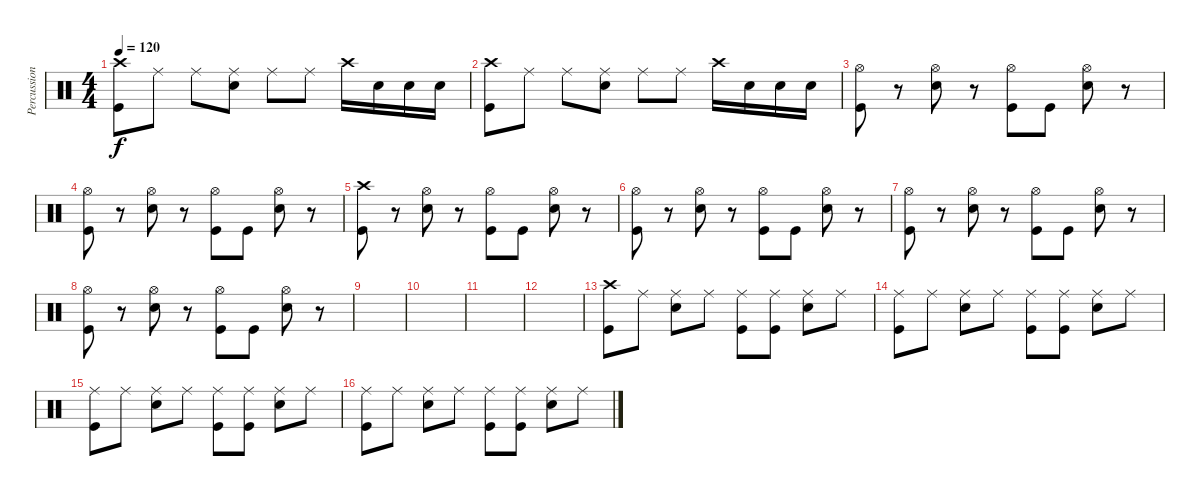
\track ("Percussion" "Percussion") {instrument percussion}
\staff {score}
\articulation defaults
\ts (4 4)
\tempo 120
\clef neutral
\ks c
("Crash high (hit)" "Kick (hit)").8{dy f} "Ride (middle)".8 "Ride (middle)".8 ("Ride (middle)" "Snare (hit) 2").8 "Ride (middle)".8 "Ride (middle)".8 "Crash high (hit)".16 "Snare (hit) 2".16 "Snare (hit) 2".16 "Snare (hit) 2".16 |
("Crash high (hit)" "Kick (hit)").8 "Ride (middle)".8 "Ride (middle)".8 ("Ride (middle)" "Snare (hit) 2").8 "Ride (middle)".8 "Ride (middle)".8 "Crash high (hit)".16 "Snare (hit) 2".16 "Snare (hit) 2".16 "Snare (hit) 2".16 |
("Hi-Hat (open)" "Kick (hit)").8 r.8 ("Hi-Hat (open)" "Snare (hit) 2").8 r.8 ("Hi-Hat (open)" "Kick (hit)").8 "Kick (hit)".8 ("Hi-Hat (open)" "Snare (hit) 2").8 r.8 |
("Hi-Hat (open)" "Kick (hit)").8 r.8 ("Hi-Hat (open)" "Snare (hit) 2").8 r.8 ("Hi-Hat (open)" "Kick (hit)").8 "Kick (hit)".8 ("Hi-Hat (open)" "Snare (hit) 2").8 r.8 |
("Crash high (hit)" "Kick (hit)").8 r.8 ("Hi-Hat (open)" "Snare (hit) 2").8 r.8 ("Hi-Hat (open)" "Kick (hit)").8 "Kick (hit)".8 ("Hi-Hat (open)" "Snare (hit) 2").8 r.8 |
("Hi-Hat (open)" "Kick (hit)").8 r.8 ("Hi-Hat (open)" "Snare (hit) 2").8 r.8 ("Hi-Hat (open)" "Kick (hit)").8 "Kick (hit)".8 ("Hi-Hat (open)" "Snare (hit) 2").8 r.8 |
("Hi-Hat (open)" "Kick (hit)").8 r.8 ("Hi-Hat (open)" "Snare (hit) 2").8 r.8 ("Hi-Hat (open)" "Kick (hit)").8 "Kick (hit)".8 ("Hi-Hat (open)" "Snare (hit) 2").8 r.8 |
("Hi-Hat (open)" "Kick (hit)").8 r.8 ("Hi-Hat (open)" "Snare (hit) 2").8 r.8 ("Hi-Hat (open)" "Kick (hit)").8 "Kick (hit)".8 ("Hi-Hat (open)" "Snare (hit) 2").8 r.8 |
|
|
|
|
("Crash high (hit)" "Kick (hit)").8 "Ride (middle)".8 ("Ride (middle)" "Snare (hit) 2").8 "Ride (middle)".8 ("Ride (middle)" "Kick (hit)").8 ("Ride (middle)" "Kick (hit)").8 ("Ride (middle)" "Snare (hit) 2").8 "Ride (middle)".8 |
("Ride (middle)" "Kick (hit)").8 "Ride (middle)".8 ("Ride (middle)" "Snare (hit) 2").8 "Ride (middle)".8 ("Ride (middle)" "Kick (hit)").8 ("Ride (middle)" "Kick (hit)").8 ("Ride (middle)" "Snare (hit) 2").8 "Ride (middle)".8 |
("Ride (middle)" "Kick (hit)").8 "Ride (middle)".8 ("Ride (middle)" "Snare (hit) 2").8 "Ride (middle)".8 ("Ride (middle)" "Kick (hit)").8 ("Ride (middle)" "Kick (hit)").8 ("Ride (middle)" "Snare (hit) 2").8 "Ride (middle)".8 |
("Ride (middle)" "Kick (hit)").8 "Ride (middle)".8 ("Ride (middle)" "Snare (hit) 2").8 "Ride (middle)".8 ("Ride (middle)" "Kick (hit)").8 ("Ride (middle)" "Kick (hit)").8 ("Ride (middle)" "Snare (hit) 2").8 "Ride (middle)".8
